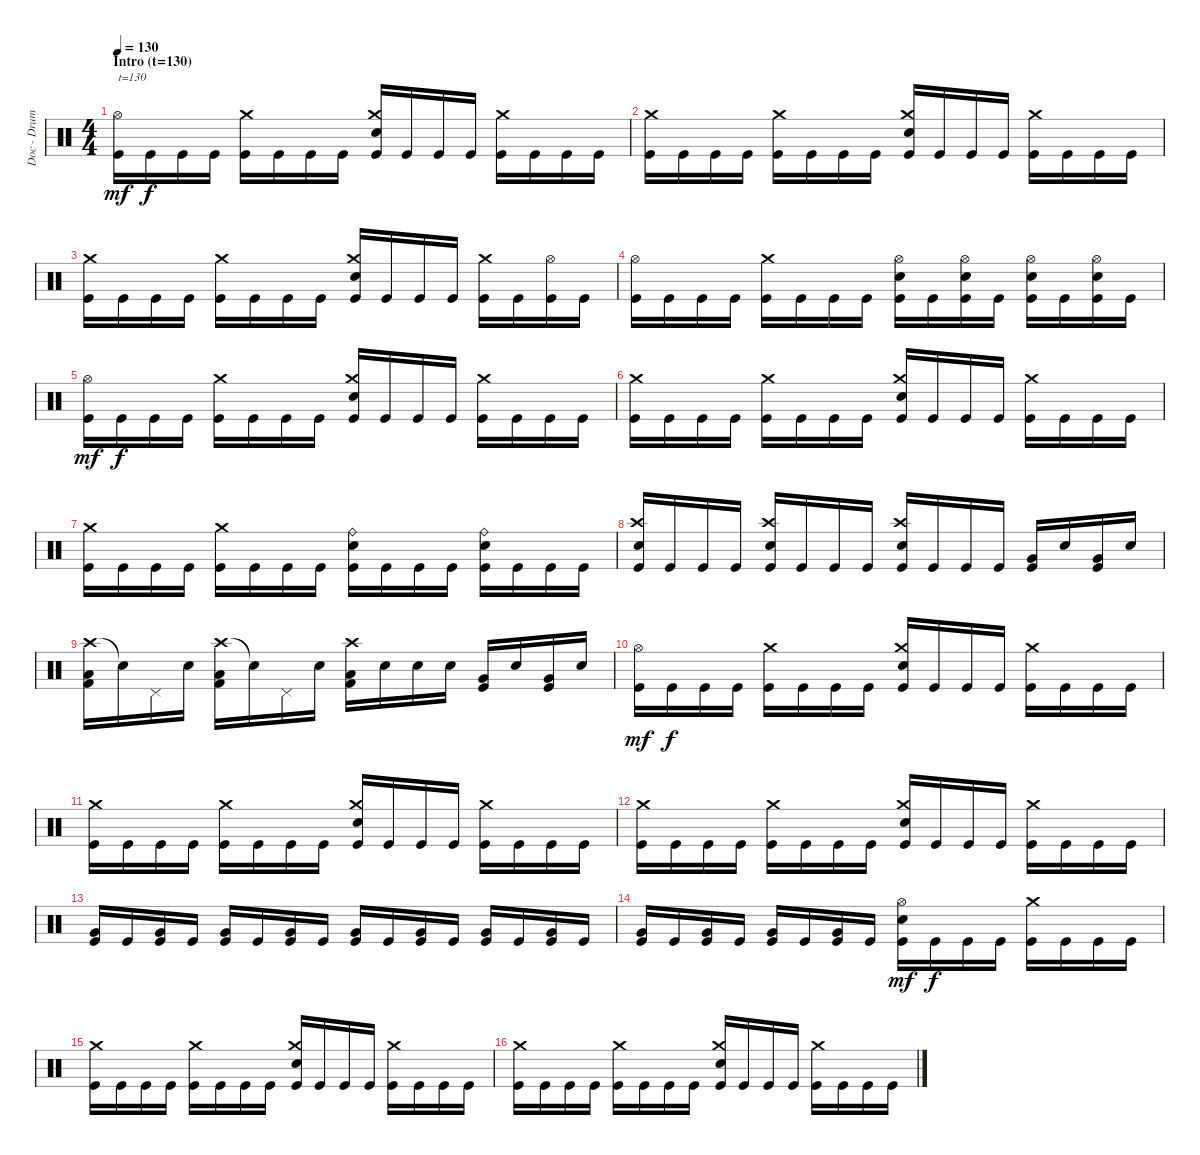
\track ("Doc - Drums" "Doc - Drum") {instrument percussion}
\staff {score}
\articulation defaults
\ts (4 4)
\section ("" "Intro (t=130)")
\tempo 130
\clef neutral
\ks c
("Hi-Hat (open)" "Kick (hit)").16{txt "t=130" dy mf volume 16 balance 8} "Kick (hit)".16{dy f} "Kick (hit)".16 "Kick (hit)".16 ("Crash medium (hit)" "Kick (hit)").16 "Kick (hit)".16 "Kick (hit)".16 "Kick (hit)".16 ("Crash medium (hit)" "Electric Snare (hit)" "Kick (hit)").16 "Kick (hit)".16 "Kick (hit)".16 "Kick (hit)".16 ("Crash medium (hit)" "Kick (hit)").16 "Kick (hit)".16 "Kick (hit)".16 "Kick (hit)".16 |
("Crash medium (hit)" "Kick (hit)").16 "Kick (hit)".16 "Kick (hit)".16 "Kick (hit)".16 ("Crash medium (hit)" "Kick (hit)").16 "Kick (hit)".16 "Kick (hit)".16 "Kick (hit)".16 ("Crash medium (hit)" "Electric Snare (hit)" "Kick (hit)").16 "Kick (hit)".16 "Kick (hit)".16 "Kick (hit)".16 ("Crash medium (hit)" "Kick (hit)").16 "Kick (hit)".16 "Kick (hit)".16 "Kick (hit)".16 |
("Crash medium (hit)" "Kick (hit)").16 "Kick (hit)".16 "Kick (hit)".16 "Kick (hit)".16 ("Crash medium (hit)" "Kick (hit)").16 "Kick (hit)".16 "Kick (hit)".16 "Kick (hit)".16 ("Crash medium (hit)" "Electric Snare (hit)" "Kick (hit)").16 "Kick (hit)".16 "Kick (hit)".16 "Kick (hit)".16 ("Crash medium (hit)" "Kick (hit)").16 "Kick (hit)".16 ("Hi-Hat (open)" "Kick (hit)").16 "Kick (hit)".16 |
("Hi-Hat (open)" "Kick (hit)").16 "Kick (hit)".16 "Kick (hit)".16 "Kick (hit)".16 ("Crash medium (hit)" "Kick (hit)").16 "Kick (hit)".16 "Kick (hit)".16 "Kick (hit)".16 ("Hi-Hat (open)" "Electric Snare (hit)" "Kick (hit)").16 "Kick (hit)".16 ("Hi-Hat (open)" "Electric Snare (hit)" "Kick (hit)").16 "Kick (hit)".16 ("Hi-Hat (open)" "Electric Snare (hit)" "Kick (hit)").16 "Kick (hit)".16 ("Hi-Hat (open)" "Electric Snare (hit)" "Kick (hit)").16 "Kick (hit)".16 |
("Hi-Hat (open)" "Kick (hit)").16{dy mf} "Kick (hit)".16{dy f} "Kick (hit)".16 "Kick (hit)".16 ("Crash medium (hit)" "Kick (hit)").16 "Kick (hit)".16 "Kick (hit)".16 "Kick (hit)".16 ("Crash medium (hit)" "Electric Snare (hit)" "Kick (hit)").16 "Kick (hit)".16 "Kick (hit)".16 "Kick (hit)".16 ("Crash medium (hit)" "Kick (hit)").16 "Kick (hit)".16 "Kick (hit)".16 "Kick (hit)".16 |
("Crash medium (hit)" "Kick (hit)").16 "Kick (hit)".16 "Kick (hit)".16 "Kick (hit)".16 ("Crash medium (hit)" "Kick (hit)").16 "Kick (hit)".16 "Kick (hit)".16 "Kick (hit)".16 ("Crash medium (hit)" "Electric Snare (hit)" "Kick (hit)").16 "Kick (hit)".16 "Kick (hit)".16 "Kick (hit)".16 ("Crash medium (hit)" "Kick (hit)").16 "Kick (hit)".16 "Kick (hit)".16 "Kick (hit)".16 |
("Crash medium (hit)" "Kick (hit)").16 "Kick (hit)".16 "Kick (hit)".16 "Kick (hit)".16 ("Crash medium (hit)" "Kick (hit)").16 "Kick (hit)".16 "Kick (hit)".16 "Kick (hit)".16 ("Ride (bell)" "Electric Snare (hit)" "Kick (hit)").16 "Kick (hit)".16 "Kick (hit)".16 "Kick (hit)".16 ("Ride (bell)" "Electric Snare (hit)" "Kick (hit)").16 "Kick (hit)".16 "Kick (hit)".16 "Kick (hit)".16 |
("Crash high (hit)" "Snare (hit) 2" "Kick (hit)").16 "Kick (hit)".16 "Kick (hit)".16 "Kick (hit)".16 ("Crash high (hit)" "Snare (hit) 2" "Kick (hit)").16 "Kick (hit)".16 "Kick (hit)".16 "Kick (hit)".16 ("Crash high (hit)" "Snare (hit) 2" "Kick (hit)").16 "Kick (hit)".16 "Kick (hit)".16 "Kick (hit)".16 ("Very Low Tom (hit)" "Kick (hit)").16 "Snare (hit)".16 ("Very Low Tom (hit)" "Kick (hit)").16 "Snare (hit)".16 |
("Crash high (hit)" "Low Floor Tom (hit)" "Kick (hit) 2").16{volume 16} "Snare (hit)"{t}.16 "Pedal Hi-Hat (hit)"{x}.16{volume 0} "Snare (hit)".16 ("Crash high (hit)" "Low Floor Tom (hit)" "Kick (hit) 2").16{volume 16} "Snare (hit)"{t}.16 "Pedal Hi-Hat (hit)"{x}.16{volume 0} "Snare (hit)".16 ("Crash high (hit)" "Low Floor Tom (hit)" "Kick (hit) 2").16{volume 16} "Snare (hit)".16 "Snare (hit)".16 "Snare (hit)".16 ("Very Low Tom (hit)" "Kick (hit)").16 "Snare (hit)".16 ("Very Low Tom (hit)" "Kick (hit)").16 "Snare (hit)".16 |
("Hi-Hat (open)" "Kick (hit)").16{dy mf} "Kick (hit)".16{dy f} "Kick (hit)".16 "Kick (hit)".16 ("Crash medium (hit)" "Kick (hit)").16 "Kick (hit)".16 "Kick (hit)".16 "Kick (hit)".16 ("Crash medium (hit)" "Electric Snare (hit)" "Kick (hit)").16 "Kick (hit)".16 "Kick (hit)".16 "Kick (hit)".16 ("Crash medium (hit)" "Kick (hit)").16 "Kick (hit)".16 "Kick (hit)".16 "Kick (hit)".16 |
("Crash medium (hit)" "Kick (hit)").16 "Kick (hit)".16 "Kick (hit)".16 "Kick (hit)".16 ("Crash medium (hit)" "Kick (hit)").16 "Kick (hit)".16 "Kick (hit)".16 "Kick (hit)".16 ("Crash medium (hit)" "Electric Snare (hit)" "Kick (hit)").16 "Kick (hit)".16 "Kick (hit)".16 "Kick (hit)".16 ("Crash medium (hit)" "Kick (hit)").16 "Kick (hit)".16 "Kick (hit)".16 "Kick (hit)".16 |
("Crash medium (hit)" "Kick (hit)").16 "Kick (hit)".16 "Kick (hit)".16 "Kick (hit)".16 ("Crash medium (hit)" "Kick (hit)").16 "Kick (hit)".16 "Kick (hit)".16 "Kick (hit)".16 ("Crash medium (hit)" "Electric Snare (hit)" "Kick (hit)").16 "Kick (hit)".16 "Kick (hit)".16 "Kick (hit)".16 ("Crash medium (hit)" "Kick (hit)").16 "Kick (hit)".16 "Kick (hit)".16 "Kick (hit)".16 |
("Very Low Tom (hit)" "Kick (hit)").16 "Kick (hit)".16 ("Very Low Tom (hit)" "Kick (hit)").16 "Kick (hit)".16 ("Very Low Tom (hit)" "Kick (hit)").16 "Kick (hit)".16 ("Very Low Tom (hit)" "Kick (hit)").16 "Kick (hit)".16 ("Very Low Tom (hit)" "Kick (hit)").16 "Kick (hit)".16 ("Very Low Tom (hit)" "Kick (hit)").16 "Kick (hit)".16 ("Very Low Tom (hit)" "Kick (hit)").16 "Kick (hit)".16 ("Very Low Tom (hit)" "Kick (hit)").16 "Kick (hit)".16 |
("Very Low Tom (hit)" "Kick (hit)").16 "Kick (hit)".16 ("Very Low Tom (hit)" "Kick (hit)").16 "Kick (hit)".16 ("Very Low Tom (hit)" "Kick (hit)").16 "Kick (hit)".16 ("Very Low Tom (hit)" "Kick (hit)").16 "Kick (hit)".16 ("Hi-Hat (open)" "Electric Snare (hit)" "Kick (hit)").16{dy mf} "Kick (hit)".16{dy f} "Kick (hit)".16 "Kick (hit)".16 ("Crash medium (hit)" "Kick (hit)").16 "Kick (hit)".16 "Kick (hit)".16 "Kick (hit)".16 |
("Crash medium (hit)" "Kick (hit)").16 "Kick (hit)".16 "Kick (hit)".16 "Kick (hit)".16 ("Crash medium (hit)" "Kick (hit)").16 "Kick (hit)".16 "Kick (hit)".16 "Kick (hit)".16 ("Crash medium (hit)" "Electric Snare (hit)" "Kick (hit)").16 "Kick (hit)".16 "Kick (hit)".16 "Kick (hit)".16 ("Crash medium (hit)" "Kick (hit)").16 "Kick (hit)".16 "Kick (hit)".16 "Kick (hit)".16 |
("Crash medium (hit)" "Kick (hit)").16 "Kick (hit)".16 "Kick (hit)".16 "Kick (hit)".16 ("Crash medium (hit)" "Kick (hit)").16 "Kick (hit)".16 "Kick (hit)".16 "Kick (hit)".16 ("Crash medium (hit)" "Electric Snare (hit)" "Kick (hit)").16 "Kick (hit)".16 "Kick (hit)".16 "Kick (hit)".16 ("Crash medium (hit)" "Kick (hit)").16 "Kick (hit)".16 "Kick (hit)".16 "Kick (hit)".16
